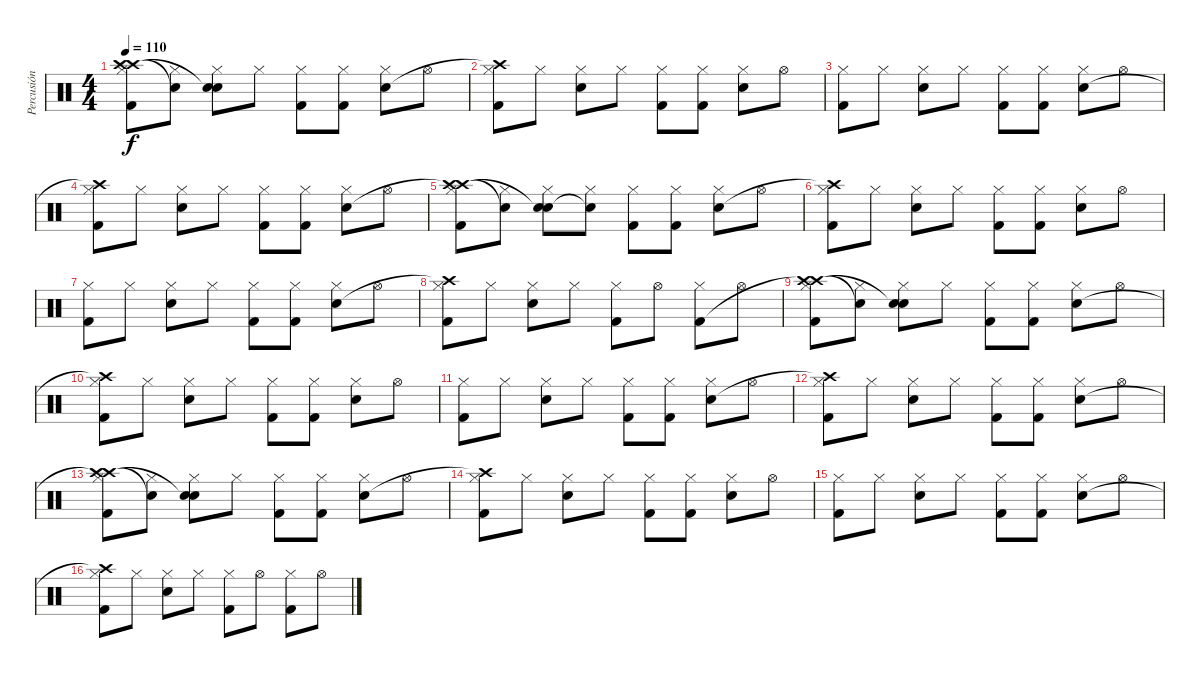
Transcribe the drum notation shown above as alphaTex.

\track ("Percusión" "Percusión") {instrument percussion}
\staff {score}
\articulation defaults
\ts (4 4)
\tempo 110
\clef neutral
\ks c
("Hi-Hat (closed)" "Crash high (hit)"{t} "Crash high (hit)" "Kick (hit) 2").8{dy f} ("Hi-Hat (closed)" "Snare (hit)"{t}).8 ("Hi-Hat (closed)" "Electric Snare (hit)" "Snare (hit)"{t}).8 "Hi-Hat (closed)".8 ("Hi-Hat (closed)" "Kick (hit) 2").8 ("Hi-Hat (closed)" "Kick (hit) 2").8 ("Hi-Hat (closed)" "Electric Snare (hit)").8 "Hi-Hat (open)".8 |
("Hi-Hat (closed)" "Crash high (hit)"{t} "Kick (hit) 2").8 "Hi-Hat (closed)".8 ("Hi-Hat (closed)" "Electric Snare (hit)").8 "Hi-Hat (closed)".8 ("Hi-Hat (closed)" "Kick (hit) 2").8 ("Hi-Hat (closed)" "Kick (hit) 2").8 ("Hi-Hat (closed)" "Electric Snare (hit)").8 "Hi-Hat (open)".8 |
("Hi-Hat (closed)" "Kick (hit) 2").8 "Hi-Hat (closed)".8 ("Hi-Hat (closed)" "Electric Snare (hit)").8 "Hi-Hat (closed)".8 ("Hi-Hat (closed)" "Kick (hit) 2").8 ("Hi-Hat (closed)" "Kick (hit) 2").8 ("Hi-Hat (closed)" "Electric Snare (hit)").8 "Hi-Hat (open)".8 |
("Hi-Hat (closed)" "Crash high (hit)"{t} "Kick (hit) 2").8 "Hi-Hat (closed)".8 ("Hi-Hat (closed)" "Electric Snare (hit)").8 "Hi-Hat (closed)".8 ("Hi-Hat (closed)" "Kick (hit) 2").8 ("Hi-Hat (closed)" "Kick (hit) 2").8 ("Hi-Hat (closed)" "Electric Snare (hit)").8 "Hi-Hat (open)".8 |
("Hi-Hat (closed)" "Crash high (hit)"{t} "Crash high (hit)" "Kick (hit) 2").8 ("Hi-Hat (closed)" "Snare (hit)"{t}).8 ("Hi-Hat (closed)" "Electric Snare (hit)" "Snare (hit)"{t}).8 ("Hi-Hat (closed)" "Snare (hit)"{t}).8 ("Hi-Hat (closed)" "Kick (hit) 2").8 ("Hi-Hat (closed)" "Kick (hit) 2").8 ("Hi-Hat (closed)" "Electric Snare (hit)").8 "Hi-Hat (open)".8 |
("Hi-Hat (closed)" "Crash high (hit)"{t} "Kick (hit) 2").8 "Hi-Hat (closed)".8 ("Hi-Hat (closed)" "Electric Snare (hit)").8 "Hi-Hat (closed)".8 ("Hi-Hat (closed)" "Kick (hit) 2").8 ("Hi-Hat (closed)" "Kick (hit) 2").8 ("Hi-Hat (closed)" "Electric Snare (hit)").8 "Hi-Hat (open)".8 |
("Hi-Hat (closed)" "Kick (hit) 2").8 "Hi-Hat (closed)".8 ("Hi-Hat (closed)" "Electric Snare (hit)").8 "Hi-Hat (closed)".8 ("Hi-Hat (closed)" "Kick (hit) 2").8 ("Hi-Hat (closed)" "Kick (hit) 2").8 ("Hi-Hat (closed)" "Electric Snare (hit)").8 "Hi-Hat (open)".8 |
("Hi-Hat (closed)" "Crash high (hit)"{t} "Kick (hit) 2").8 "Hi-Hat (closed)".8 ("Hi-Hat (closed)" "Electric Snare (hit)").8 "Hi-Hat (closed)".8 ("Hi-Hat (closed)" "Kick (hit) 2").8 "Hi-Hat (open)".8 ("Hi-Hat (closed)" "Kick (hit) 2").8 "Hi-Hat (open)".8 |
("Hi-Hat (closed)" "Crash high (hit)"{t} "Crash high (hit)" "Kick (hit) 2").8 ("Hi-Hat (closed)" "Snare (hit)"{t}).8 ("Hi-Hat (closed)" "Electric Snare (hit)" "Snare (hit)"{t}).8 "Hi-Hat (closed)".8 ("Hi-Hat (closed)" "Kick (hit) 2").8 ("Hi-Hat (closed)" "Kick (hit) 2").8 ("Hi-Hat (closed)" "Electric Snare (hit)").8 "Hi-Hat (open)".8 |
("Hi-Hat (closed)" "Crash high (hit)"{t} "Kick (hit) 2").8 "Hi-Hat (closed)".8 ("Hi-Hat (closed)" "Electric Snare (hit)").8 "Hi-Hat (closed)".8 ("Hi-Hat (closed)" "Kick (hit) 2").8 ("Hi-Hat (closed)" "Kick (hit) 2").8 ("Hi-Hat (closed)" "Electric Snare (hit)").8 "Hi-Hat (open)".8 |
("Hi-Hat (closed)" "Kick (hit) 2").8 "Hi-Hat (closed)".8 ("Hi-Hat (closed)" "Electric Snare (hit)").8 "Hi-Hat (closed)".8 ("Hi-Hat (closed)" "Kick (hit) 2").8 ("Hi-Hat (closed)" "Kick (hit) 2").8 ("Hi-Hat (closed)" "Electric Snare (hit)").8 "Hi-Hat (open)".8 |
("Hi-Hat (closed)" "Crash high (hit)"{t} "Kick (hit) 2").8 "Hi-Hat (closed)".8 ("Hi-Hat (closed)" "Electric Snare (hit)").8 "Hi-Hat (closed)".8 ("Hi-Hat (closed)" "Kick (hit) 2").8 ("Hi-Hat (closed)" "Kick (hit) 2").8 ("Hi-Hat (closed)" "Electric Snare (hit)").8 "Hi-Hat (open)".8 |
("Hi-Hat (closed)" "Crash high (hit)"{t} "Crash high (hit)" "Kick (hit) 2").8 ("Hi-Hat (closed)" "Snare (hit)"{t}).8 ("Hi-Hat (closed)" "Electric Snare (hit)" "Snare (hit)"{t}).8 "Hi-Hat (closed)".8 ("Hi-Hat (closed)" "Kick (hit) 2").8 ("Hi-Hat (closed)" "Kick (hit) 2").8 ("Hi-Hat (closed)" "Electric Snare (hit)").8 "Hi-Hat (open)".8 |
("Hi-Hat (closed)" "Crash high (hit)"{t} "Kick (hit) 2").8 "Hi-Hat (closed)".8 ("Hi-Hat (closed)" "Electric Snare (hit)").8 "Hi-Hat (closed)".8 ("Hi-Hat (closed)" "Kick (hit) 2").8 ("Hi-Hat (closed)" "Kick (hit) 2").8 ("Hi-Hat (closed)" "Electric Snare (hit)").8 "Hi-Hat (open)".8 |
("Hi-Hat (closed)" "Kick (hit) 2").8 "Hi-Hat (closed)".8 ("Hi-Hat (closed)" "Electric Snare (hit)").8 "Hi-Hat (closed)".8 ("Hi-Hat (closed)" "Kick (hit) 2").8 ("Hi-Hat (closed)" "Kick (hit) 2").8 ("Hi-Hat (closed)" "Electric Snare (hit)").8 "Hi-Hat (open)".8 |
("Hi-Hat (closed)" "Crash high (hit)"{t} "Kick (hit) 2").8 "Hi-Hat (closed)".8 ("Hi-Hat (closed)" "Electric Snare (hit)").8 "Hi-Hat (closed)".8 ("Hi-Hat (closed)" "Kick (hit) 2").8 "Hi-Hat (open)".8 ("Hi-Hat (closed)" "Kick (hit) 2").8 "Hi-Hat (open)".8
